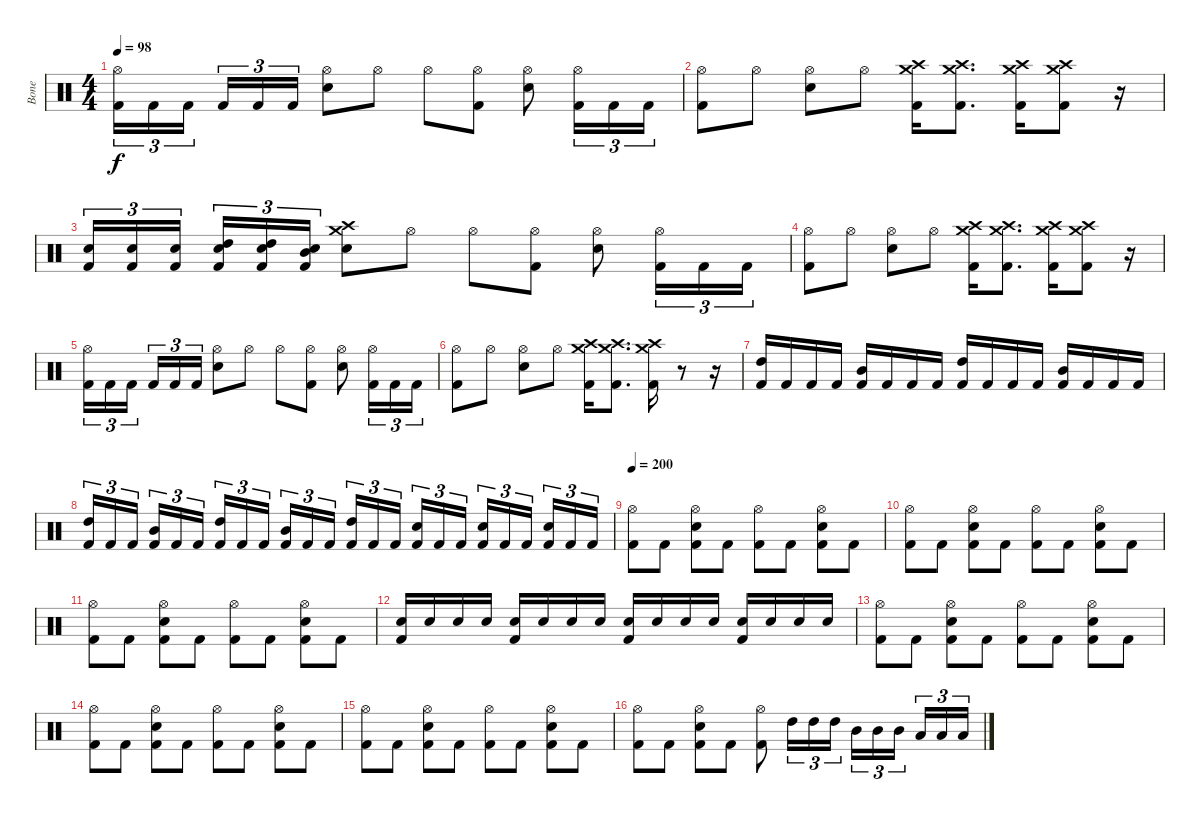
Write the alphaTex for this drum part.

\track ("Bone " "Bone ") {instrument percussion}
\staff {score}
\articulation defaults
\ts (4 4)
\tempo 98
\clef neutral
\ks c
("Hi-Hat (open)" "Kick (hit) 2").16{tu (3 2) dy f} "Kick (hit) 2".16{tu (3 2)} "Kick (hit) 2".16{tu (3 2) beam splitsecondary} "Kick (hit) 2".16{tu (3 2)} "Kick (hit) 2".16{tu (3 2)} "Kick (hit) 2".16{tu (3 2)} ("Hi-Hat (open)" "Electric Snare (hit)").8 "Hi-Hat (open)".8 "Hi-Hat (open)".8 ("Hi-Hat (open)" "Kick (hit) 2").8 ("Hi-Hat (open)" "Electric Snare (hit)").8 ("Hi-Hat (open)" "Kick (hit) 2").16{tu (3 2)} "Kick (hit) 2".16{tu (3 2)} "Kick (hit) 2".16{tu (3 2)} |
("Hi-Hat (open)" "Kick (hit) 2").8 "Hi-Hat (open)".8 ("Hi-Hat (open)" "Electric Snare (hit)").8 "Hi-Hat (open)".8 ("Crash medium (hit)" "Crash high (hit)" "Kick (hit) 2").16 ("Crash medium (hit)" "Crash high (hit)" "Kick (hit) 2").8{d} ("Crash medium (hit)" "Crash high (hit)" "Kick (hit) 2").16 ("Crash medium (hit)" "Crash high (hit)" "Kick (hit) 2").8 r.16 |
("Electric Snare (hit)" "Kick (hit) 2").16{tu (3 2)} ("Electric Snare (hit)" "Kick (hit) 2").16{tu (3 2)} ("Electric Snare (hit)" "Kick (hit) 2").16{tu (3 2) beam splitsecondary} ("Electric Snare (hit)" "High Tom (hit)" "Kick (hit) 2").16{tu (3 2)} ("Electric Snare (hit)" "High Tom (hit)" "Kick (hit) 2").16{tu (3 2)} ("Electric Snare (hit)" "Mid Tom (hit)" "Kick (hit) 2").16{tu (3 2)} ("Crash medium (hit)" "Crash high (hit)" "Electric Snare (hit)").8 "Hi-Hat (open)".8 "Hi-Hat (open)".8 ("Hi-Hat (open)" "Kick (hit) 2").8 ("Hi-Hat (open)" "Electric Snare (hit)").8 ("Hi-Hat (open)" "Kick (hit) 2").16{tu (3 2)} "Kick (hit) 2".16{tu (3 2)} "Kick (hit) 2".16{tu (3 2)} |
("Hi-Hat (open)" "Kick (hit) 2").8 "Hi-Hat (open)".8 ("Hi-Hat (open)" "Electric Snare (hit)").8 "Hi-Hat (open)".8 ("Crash medium (hit)" "Crash high (hit)" "Kick (hit) 2").16 ("Crash medium (hit)" "Crash high (hit)" "Kick (hit) 2").8{d} ("Crash medium (hit)" "Crash high (hit)" "Kick (hit) 2").16 ("Crash medium (hit)" "Crash high (hit)" "Kick (hit) 2").8 r.16 |
("Hi-Hat (open)" "Kick (hit) 2").16{tu (3 2)} "Kick (hit) 2".16{tu (3 2)} "Kick (hit) 2".16{tu (3 2) beam splitsecondary} "Kick (hit) 2".16{tu (3 2)} "Kick (hit) 2".16{tu (3 2)} "Kick (hit) 2".16{tu (3 2)} ("Hi-Hat (open)" "Electric Snare (hit)").8 "Hi-Hat (open)".8 "Hi-Hat (open)".8 ("Hi-Hat (open)" "Kick (hit) 2").8 ("Hi-Hat (open)" "Electric Snare (hit)").8 ("Hi-Hat (open)" "Kick (hit) 2").16{tu (3 2)} "Kick (hit) 2".16{tu (3 2)} "Kick (hit) 2".16{tu (3 2)} |
("Hi-Hat (open)" "Kick (hit) 2").8 "Hi-Hat (open)".8 ("Hi-Hat (open)" "Electric Snare (hit)").8 "Hi-Hat (open)".8 ("Crash medium (hit)" "Crash high (hit)" "Kick (hit) 2").16 ("Crash medium (hit)" "Crash high (hit)" "Kick (hit) 2").8{d} ("Crash medium (hit)" "Crash high (hit)" "Kick (hit) 2").16 r.8 r.16 |
("High Tom (hit)" "Kick (hit) 2").16 "Kick (hit) 2".16 "Kick (hit) 2".16 "Kick (hit) 2".16 ("Mid Tom (hit)" "Kick (hit) 2").16 "Kick (hit) 2".16 "Kick (hit) 2".16 "Kick (hit) 2".16 ("High Tom (hit)" "Kick (hit) 2").16 "Kick (hit) 2".16 "Kick (hit) 2".16 "Kick (hit) 2".16 ("Mid Tom (hit)" "Kick (hit) 2").16 "Kick (hit) 2".16 "Kick (hit) 2".16 "Kick (hit) 2".16 |
("High Tom (hit)" "Kick (hit) 2").16{tu (3 2)} "Kick (hit) 2".16{tu (3 2)} "Kick (hit) 2".16{tu (3 2) beam splitsecondary} ("Mid Tom (hit)" "Kick (hit) 2").16{tu (3 2)} "Kick (hit) 2".16{tu (3 2)} "Kick (hit) 2".16{tu (3 2)} ("High Tom (hit)" "Kick (hit) 2").16{tu (3 2)} "Kick (hit) 2".16{tu (3 2)} "Kick (hit) 2".16{tu (3 2) beam splitsecondary} ("Mid Tom (hit)" "Kick (hit) 2").16{tu (3 2)} "Kick (hit) 2".16{tu (3 2)} "Kick (hit) 2".16{tu (3 2)} ("High Tom (hit)" "Kick (hit) 2").16{tu (3 2)} "Kick (hit) 2".16{tu (3 2)} "Kick (hit) 2".16{tu (3 2) beam splitsecondary} ("Electric Snare (hit)" "Kick (hit) 2").16{tu (3 2)} "Kick (hit) 2".16{tu (3 2)} "Kick (hit) 2".16{tu (3 2)} ("Electric Snare (hit)" "Kick (hit) 2").16{tu (3 2)} "Kick (hit) 2".16{tu (3 2)} "Kick (hit) 2".16{tu (3 2) beam splitsecondary} ("Electric Snare (hit)" "Kick (hit) 2").16{tu (3 2)} "Kick (hit) 2".16{tu (3 2)} "Kick (hit) 2".16{tu (3 2)} |
\tempo 200
("Hi-Hat (open)" "Kick (hit) 2").8 "Kick (hit) 2".8 ("Hi-Hat (open)" "Electric Snare (hit)" "Kick (hit) 2").8 "Kick (hit) 2".8 ("Hi-Hat (open)" "Kick (hit) 2").8 "Kick (hit) 2".8 ("Hi-Hat (open)" "Electric Snare (hit)" "Kick (hit) 2").8 "Kick (hit) 2".8 |
("Hi-Hat (open)" "Kick (hit) 2").8 "Kick (hit) 2".8 ("Hi-Hat (open)" "Electric Snare (hit)" "Kick (hit) 2").8 "Kick (hit) 2".8 ("Hi-Hat (open)" "Kick (hit) 2").8 "Kick (hit) 2".8 ("Hi-Hat (open)" "Electric Snare (hit)" "Kick (hit) 2").8 "Kick (hit) 2".8 |
("Hi-Hat (open)" "Kick (hit) 2").8 "Kick (hit) 2".8 ("Hi-Hat (open)" "Electric Snare (hit)" "Kick (hit) 2").8 "Kick (hit) 2".8 ("Hi-Hat (open)" "Kick (hit) 2").8 "Kick (hit) 2".8 ("Hi-Hat (open)" "Electric Snare (hit)" "Kick (hit) 2").8 "Kick (hit) 2".8 |
("Electric Snare (hit)" "Kick (hit) 2").16 "Electric Snare (hit)".16 "Electric Snare (hit)".16 "Electric Snare (hit)".16 ("Electric Snare (hit)" "Kick (hit) 2").16 "Electric Snare (hit)".16 "Electric Snare (hit)".16 "Electric Snare (hit)".16 ("Electric Snare (hit)" "Kick (hit) 2").16 "Electric Snare (hit)".16 "Electric Snare (hit)".16 "Electric Snare (hit)".16 ("Electric Snare (hit)" "Kick (hit) 2").16 "Electric Snare (hit)".16 "Electric Snare (hit)".16 "Electric Snare (hit)".16 |
("Hi-Hat (open)" "Kick (hit) 2").8 "Kick (hit) 2".8 ("Hi-Hat (open)" "Electric Snare (hit)" "Kick (hit) 2").8 "Kick (hit) 2".8 ("Hi-Hat (open)" "Kick (hit) 2").8 "Kick (hit) 2".8 ("Hi-Hat (open)" "Electric Snare (hit)" "Kick (hit) 2").8 "Kick (hit) 2".8 |
("Hi-Hat (open)" "Kick (hit) 2").8 "Kick (hit) 2".8 ("Hi-Hat (open)" "Electric Snare (hit)" "Kick (hit) 2").8 "Kick (hit) 2".8 ("Hi-Hat (open)" "Kick (hit) 2").8 "Kick (hit) 2".8 ("Hi-Hat (open)" "Electric Snare (hit)" "Kick (hit) 2").8 "Kick (hit) 2".8 |
("Hi-Hat (open)" "Kick (hit) 2").8 "Kick (hit) 2".8 ("Hi-Hat (open)" "Electric Snare (hit)" "Kick (hit) 2").8 "Kick (hit) 2".8 ("Hi-Hat (open)" "Kick (hit) 2").8 "Kick (hit) 2".8 ("Hi-Hat (open)" "Electric Snare (hit)" "Kick (hit) 2").8 "Kick (hit) 2".8 |
("Hi-Hat (open)" "Kick (hit) 2").8 "Kick (hit) 2".8 ("Hi-Hat (open)" "Electric Snare (hit)" "Kick (hit) 2").8 "Kick (hit) 2".8 ("Hi-Hat (open)" "Kick (hit) 2").8 "High Tom (hit)".16{tu (3 2)} "High Tom (hit)".16{tu (3 2)} "High Tom (hit)".16{tu (3 2)} "Mid Tom (hit)".16{tu (3 2)} "Mid Tom (hit)".16{tu (3 2)} "Mid Tom (hit)".16{tu (3 2) beam splitsecondary} "Low Tom (hit)".16{tu (3 2)} "Low Tom (hit)".16{tu (3 2)} "Low Tom (hit)".16{tu (3 2)}
